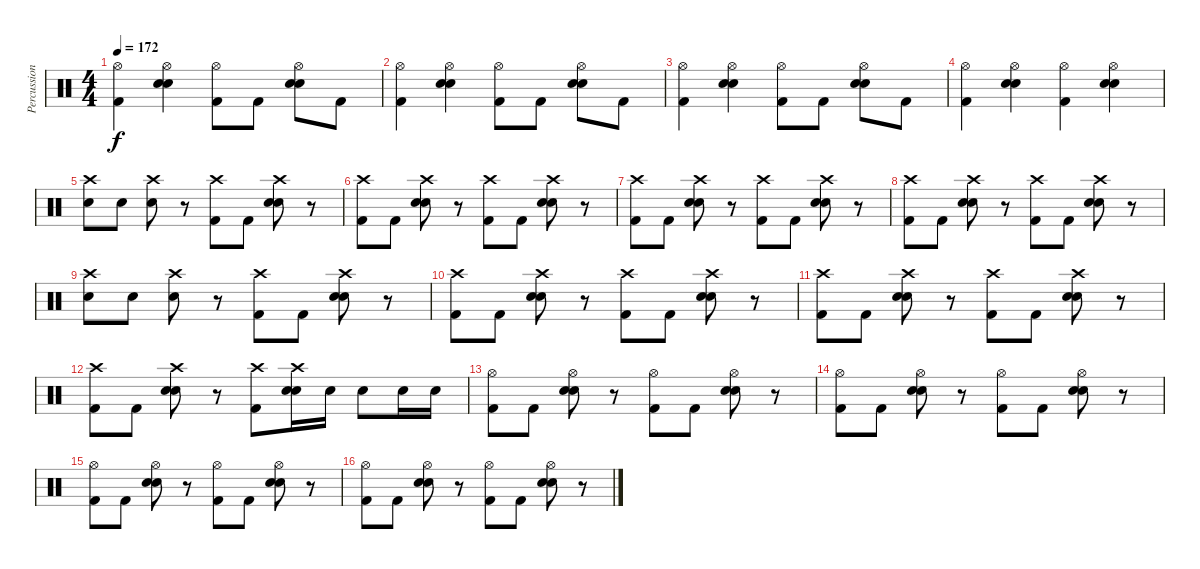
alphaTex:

\track ("Percussion" "Percussion") {instrument percussion}
\staff {score}
\articulation defaults
\ts (4 4)
\tempo 172
\clef neutral
\ks c
("Hi-Hat (open)" "Kick (hit) 2").4{dy f} ("Hi-Hat (open)" "Snare (hit) 2" "Electric Snare (hit)").4 ("Hi-Hat (open)" "Kick (hit) 2").8 "Kick (hit) 2".8 ("Hi-Hat (open)" "Snare (hit) 2" "Electric Snare (hit)").8 "Kick (hit) 2".8 |
("Hi-Hat (open)" "Kick (hit) 2").4 ("Hi-Hat (open)" "Snare (hit) 2" "Electric Snare (hit)").4 ("Hi-Hat (open)" "Kick (hit) 2").8 "Kick (hit) 2".8 ("Hi-Hat (open)" "Snare (hit) 2" "Electric Snare (hit)").8 "Kick (hit) 2".8 |
("Hi-Hat (open)" "Kick (hit) 2").4 ("Hi-Hat (open)" "Snare (hit) 2" "Electric Snare (hit)").4 ("Hi-Hat (open)" "Kick (hit) 2").8 "Kick (hit) 2".8 ("Hi-Hat (open)" "Snare (hit) 2" "Electric Snare (hit)").8 "Kick (hit) 2".8 |
("Hi-Hat (open)" "Kick (hit) 2").4 ("Hi-Hat (open)" "Snare (hit) 2" "Electric Snare (hit)").4 ("Hi-Hat (open)" "Kick (hit) 2").4 ("Hi-Hat (open)" "Snare (hit) 2" "Electric Snare (hit)").4 |
("Crash high (hit)" "Snare (hit) 2").8 "Snare (hit) 2".8 ("Crash high (hit)" "Snare (hit) 2").8 r.8 ("Crash high (hit)" "Kick (hit) 2").8 "Kick (hit) 2".8 ("Crash high (hit)" "Snare (hit) 2" "Electric Snare (hit)").8 r.8 |
("Crash high (hit)" "Kick (hit) 2").8 "Kick (hit) 2".8 ("Crash high (hit)" "Snare (hit) 2" "Electric Snare (hit)").8 r.8 ("Crash high (hit)" "Kick (hit) 2").8 "Kick (hit) 2".8 ("Crash high (hit)" "Snare (hit) 2" "Electric Snare (hit)").8 r.8 |
("Crash high (hit)" "Kick (hit) 2").8 "Kick (hit) 2".8 ("Crash high (hit)" "Snare (hit) 2" "Electric Snare (hit)").8 r.8 ("Crash high (hit)" "Kick (hit) 2").8 "Kick (hit) 2".8 ("Crash high (hit)" "Snare (hit) 2" "Electric Snare (hit)").8 r.8 |
("Crash high (hit)" "Kick (hit) 2").8 "Kick (hit) 2".8 ("Crash high (hit)" "Snare (hit) 2" "Electric Snare (hit)").8 r.8 ("Crash high (hit)" "Kick (hit) 2").8 "Kick (hit) 2".8 ("Crash high (hit)" "Snare (hit) 2" "Electric Snare (hit)").8 r.8 |
("Crash high (hit)" "Snare (hit) 2").8 "Snare (hit) 2".8 ("Crash high (hit)" "Snare (hit) 2").8 r.8 ("Crash high (hit)" "Kick (hit) 2").8 "Kick (hit) 2".8 ("Crash high (hit)" "Snare (hit) 2" "Electric Snare (hit)").8 r.8 |
("Crash high (hit)" "Kick (hit) 2").8 "Kick (hit) 2".8 ("Crash high (hit)" "Snare (hit) 2" "Electric Snare (hit)").8 r.8 ("Crash high (hit)" "Kick (hit) 2").8 "Kick (hit) 2".8 ("Crash high (hit)" "Snare (hit) 2" "Electric Snare (hit)").8 r.8 |
("Crash high (hit)" "Kick (hit) 2").8 "Kick (hit) 2".8 ("Crash high (hit)" "Snare (hit) 2" "Electric Snare (hit)").8 r.8 ("Crash high (hit)" "Kick (hit) 2").8 "Kick (hit) 2".8 ("Crash high (hit)" "Snare (hit) 2" "Electric Snare (hit)").8 r.8 |
("Crash high (hit)" "Kick (hit) 2").8 "Kick (hit) 2".8 ("Crash high (hit)" "Snare (hit) 2" "Electric Snare (hit)").8 r.8 ("Crash high (hit)" "Kick (hit) 2").8 ("Crash high (hit)" "Snare (hit) 2" "Electric Snare (hit)").16 "Electric Snare (hit)".16 "Electric Snare (hit)".8 "Electric Snare (hit)".16 "Electric Snare (hit)".16 |
("Hi-Hat (open)" "Kick (hit) 2").8 "Kick (hit) 2".8 ("Hi-Hat (open)" "Snare (hit) 2" "Electric Snare (hit)").8 r.8 ("Hi-Hat (open)" "Kick (hit) 2").8 "Kick (hit) 2".8 ("Hi-Hat (open)" "Snare (hit) 2" "Electric Snare (hit)").8 r.8 |
("Hi-Hat (open)" "Kick (hit) 2").8 "Kick (hit) 2".8 ("Hi-Hat (open)" "Snare (hit) 2" "Electric Snare (hit)").8 r.8 ("Hi-Hat (open)" "Kick (hit) 2").8 "Kick (hit) 2".8 ("Hi-Hat (open)" "Snare (hit) 2" "Electric Snare (hit)").8 r.8 |
("Hi-Hat (open)" "Kick (hit) 2").8 "Kick (hit) 2".8 ("Hi-Hat (open)" "Snare (hit) 2" "Electric Snare (hit)").8 r.8 ("Hi-Hat (open)" "Kick (hit) 2").8 "Kick (hit) 2".8 ("Hi-Hat (open)" "Snare (hit) 2" "Electric Snare (hit)").8 r.8 |
("Hi-Hat (open)" "Kick (hit) 2").8 "Kick (hit) 2".8 ("Hi-Hat (open)" "Snare (hit) 2" "Electric Snare (hit)").8 r.8 ("Hi-Hat (open)" "Kick (hit) 2").8 "Kick (hit) 2".8 ("Hi-Hat (open)" "Snare (hit) 2" "Electric Snare (hit)").8 r.8
